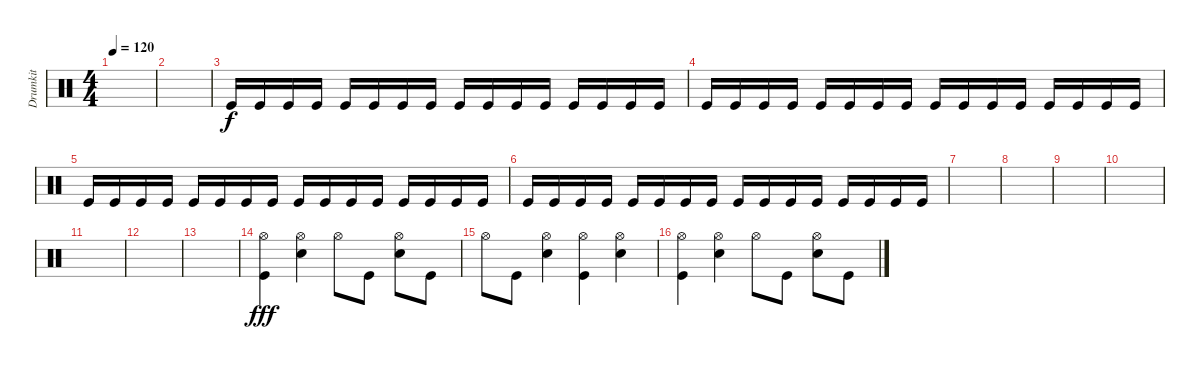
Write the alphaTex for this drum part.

\track ("Drumkit" "Drumkit") {instrument percussion}
\staff {score}
\articulation defaults
\ts (4 4)
\tempo 120
\clef neutral
\ks c
|
|
"Kick (hit)".16 "Kick (hit)".16 "Kick (hit)".16 "Kick (hit)".16 "Kick (hit)".16 "Kick (hit)".16 "Kick (hit)".16 "Kick (hit)".16 "Kick (hit)".16 "Kick (hit)".16 "Kick (hit)".16 "Kick (hit)".16 "Kick (hit)".16 "Kick (hit)".16 "Kick (hit)".16 "Kick (hit)".16 |
"Kick (hit)".16 "Kick (hit)".16 "Kick (hit)".16 "Kick (hit)".16 "Kick (hit)".16 "Kick (hit)".16 "Kick (hit)".16 "Kick (hit)".16 "Kick (hit)".16 "Kick (hit)".16 "Kick (hit)".16 "Kick (hit)".16 "Kick (hit)".16 "Kick (hit)".16 "Kick (hit)".16 "Kick (hit)".16 |
"Kick (hit)".16 "Kick (hit)".16 "Kick (hit)".16 "Kick (hit)".16 "Kick (hit)".16 "Kick (hit)".16 "Kick (hit)".16 "Kick (hit)".16 "Kick (hit)".16 "Kick (hit)".16 "Kick (hit)".16 "Kick (hit)".16 "Kick (hit)".16 "Kick (hit)".16 "Kick (hit)".16 "Kick (hit)".16 |
"Kick (hit)".16 "Kick (hit)".16 "Kick (hit)".16 "Kick (hit)".16 "Kick (hit)".16 "Kick (hit)".16 "Kick (hit)".16 "Kick (hit)".16 "Kick (hit)".16 "Kick (hit)".16 "Kick (hit)".16 "Kick (hit)".16 "Kick (hit)".16 "Kick (hit)".16 "Kick (hit)".16 "Kick (hit)".16 |
|
|
|
|
|
|
|
("Kick (hit)" "Hi-Hat (open)").4{dy fff} ("Snare (hit) 2" "Hi-Hat (open)").4 "Hi-Hat (open)".8 "Kick (hit)".8 ("Hi-Hat (open)" "Snare (hit) 2").8 "Kick (hit)".8 |
"Hi-Hat (open)".8 "Kick (hit)".8 ("Snare (hit) 2" "Hi-Hat (open)").4 ("Hi-Hat (open)" "Kick (hit)").4 ("Hi-Hat (open)" "Snare (hit) 2").4 |
("Kick (hit)" "Hi-Hat (open)").4 ("Snare (hit) 2" "Hi-Hat (open)").4 "Hi-Hat (open)".8 "Kick (hit)".8 ("Hi-Hat (open)" "Snare (hit) 2").8 "Kick (hit)".8
